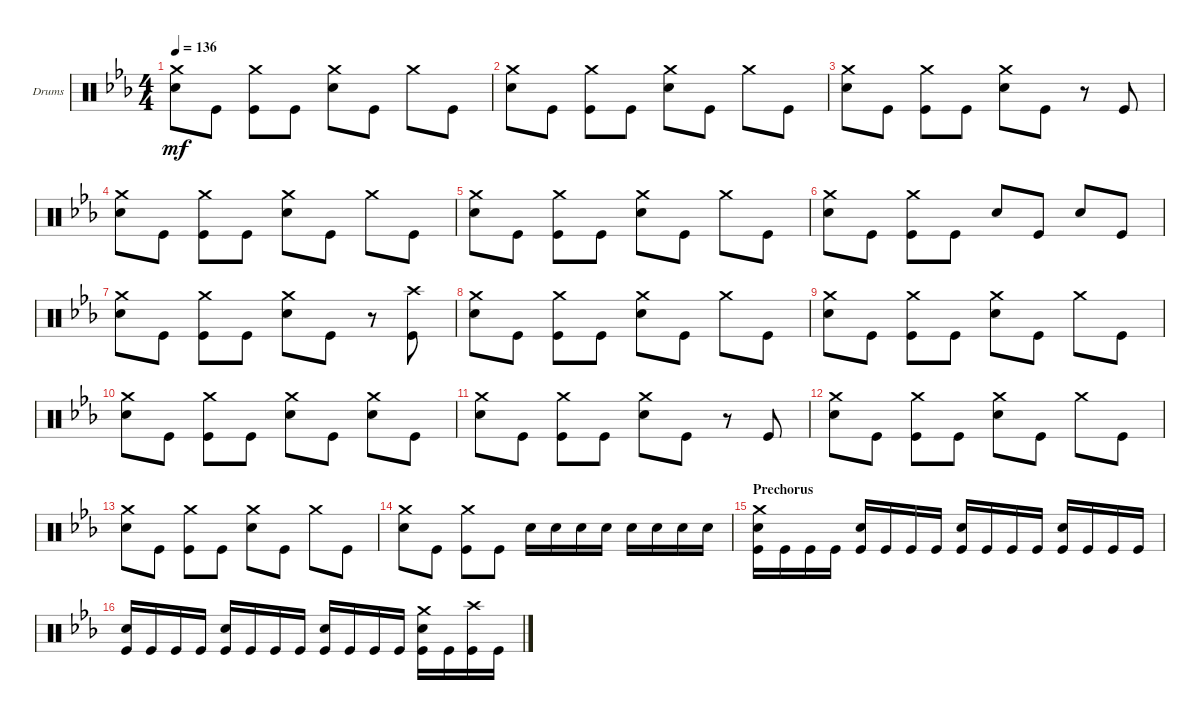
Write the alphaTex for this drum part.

\defaultSystemsLayout 4
\bracketExtendMode groupsimilarinstruments
\firstSystemTrackNameOrientation horizontal
\otherSystemsTrackNameOrientation horizontal
\track ("Drumkit" "Drums") {instrument percussion}
\staff {score}
\articulation defaults
\ts (4 4)
\tempo 136
\clef neutral
\ks cminor
("Crash medium (hit)" "Snare (hit) 2").8{dy mf} "Kick (hit)".8 ("Kick (hit)" "Crash medium (hit)").8 "Kick (hit)".8 ("Snare (hit) 2" "Crash medium (hit)").8 "Kick (hit)".8 "Crash medium (hit)".8 "Kick (hit)".8 |
("Crash medium (hit)" "Snare (hit) 2").8 "Kick (hit)".8 ("Kick (hit)" "Crash medium (hit)").8 "Kick (hit)".8 ("Snare (hit) 2" "Crash medium (hit)").8 "Kick (hit)".8 "Crash medium (hit)".8 "Kick (hit)".8 |
("Crash medium (hit)" "Snare (hit) 2").8 "Kick (hit)".8 ("Kick (hit)" "Crash medium (hit)").8 "Kick (hit)".8 ("Snare (hit) 2" "Crash medium (hit)").8 "Kick (hit)".8 r.8 "Kick (hit)".8 |
("Crash medium (hit)" "Snare (hit) 2").8 "Kick (hit)".8 ("Kick (hit)" "Crash medium (hit)").8 "Kick (hit)".8 ("Snare (hit) 2" "Crash medium (hit)").8 "Kick (hit)".8 "Crash medium (hit)".8 "Kick (hit)".8 |
("Crash medium (hit)" "Snare (hit) 2").8 "Kick (hit)".8 ("Kick (hit)" "Crash medium (hit)").8 "Kick (hit)".8 ("Snare (hit) 2" "Crash medium (hit)").8 "Kick (hit)".8 "Crash medium (hit)".8 "Kick (hit)".8 |
("Crash medium (hit)" "Snare (hit) 2").8 "Kick (hit)".8 ("Kick (hit)" "Crash medium (hit)").8 "Kick (hit)".8 "Snare (hit) 2".8 "Kick (hit)".8 "Snare (hit) 2".8 "Kick (hit)".8 |
("Crash medium (hit)" "Snare (hit) 2").8 "Kick (hit)".8 ("Kick (hit)" "Crash medium (hit)").8 "Kick (hit)".8 ("Snare (hit) 2" "Crash medium (hit)").8 "Kick (hit)".8 r.8 ("Kick (hit)" "Crash high (hit)").8 |
("Crash medium (hit)" "Snare (hit) 2").8 "Kick (hit)".8 ("Kick (hit)" "Crash medium (hit)").8 "Kick (hit)".8 ("Snare (hit) 2" "Crash medium (hit)").8 "Kick (hit)".8 "Crash medium (hit)".8 "Kick (hit)".8 |
("Crash medium (hit)" "Snare (hit) 2").8 "Kick (hit)".8 ("Kick (hit)" "Crash medium (hit)").8 "Kick (hit)".8 ("Snare (hit) 2" "Crash medium (hit)").8 "Kick (hit)".8 "Crash medium (hit)".8 "Kick (hit)".8 |
("Crash medium (hit)" "Snare (hit) 2").8 "Kick (hit)".8 ("Kick (hit)" "Crash medium (hit)").8 "Kick (hit)".8 ("Snare (hit) 2" "Crash medium (hit)").8 "Kick (hit)".8 ("Crash medium (hit)" "Snare (hit) 2").8 "Kick (hit)".8 |
("Crash medium (hit)" "Snare (hit) 2").8 "Kick (hit)".8 ("Kick (hit)" "Crash medium (hit)").8 "Kick (hit)".8 ("Snare (hit) 2" "Crash medium (hit)").8 "Kick (hit)".8 r.8 "Kick (hit)".8 |
("Crash medium (hit)" "Snare (hit) 2").8 "Kick (hit)".8 ("Kick (hit)" "Crash medium (hit)").8 "Kick (hit)".8 ("Snare (hit) 2" "Crash medium (hit)").8 "Kick (hit)".8 "Crash medium (hit)".8 "Kick (hit)".8 |
("Crash medium (hit)" "Snare (hit) 2").8 "Kick (hit)".8 ("Kick (hit)" "Crash medium (hit)").8 "Kick (hit)".8 ("Snare (hit) 2" "Crash medium (hit)").8 "Kick (hit)".8 "Crash medium (hit)".8 "Kick (hit)".8 |
("Crash medium (hit)" "Snare (hit) 2").8 "Kick (hit)".8 ("Kick (hit)" "Crash medium (hit)").8 "Kick (hit)".8 "Snare (hit) 2".16 "Snare (hit) 2".16 "Snare (hit) 2".16 "Snare (hit) 2".16 "Snare (hit) 2".16 "Snare (hit) 2".16 "Snare (hit) 2".16 "Snare (hit) 2".16 |
\section ("" "Prechorus")
("Kick (hit)" "Snare (hit) 2" "Crash medium (hit)").16 "Kick (hit)".16 "Kick (hit)".16 "Kick (hit)".16 ("Kick (hit)" "Snare (hit) 2").16 "Kick (hit)".16 "Kick (hit)".16 "Kick (hit)".16 ("Kick (hit)" "Snare (hit) 2").16 "Kick (hit)".16 "Kick (hit)".16 "Kick (hit)".16 ("Kick (hit)" "Snare (hit) 2").16 "Kick (hit)".16 "Kick (hit)".16 "Kick (hit)".16 |
("Kick (hit)" "Snare (hit) 2").16 "Kick (hit)".16 "Kick (hit)".16 "Kick (hit)".16 ("Kick (hit)" "Snare (hit) 2").16 "Kick (hit)".16 "Kick (hit)".16 "Kick (hit)".16 ("Kick (hit)" "Snare (hit) 2").16 "Kick (hit)".16 "Kick (hit)".16 "Kick (hit)".16 ("Kick (hit)" "Snare (hit) 2" "Crash medium (hit)").16 "Kick (hit)".16 ("Kick (hit)" "Crash high (hit)").16 "Kick (hit)".16
